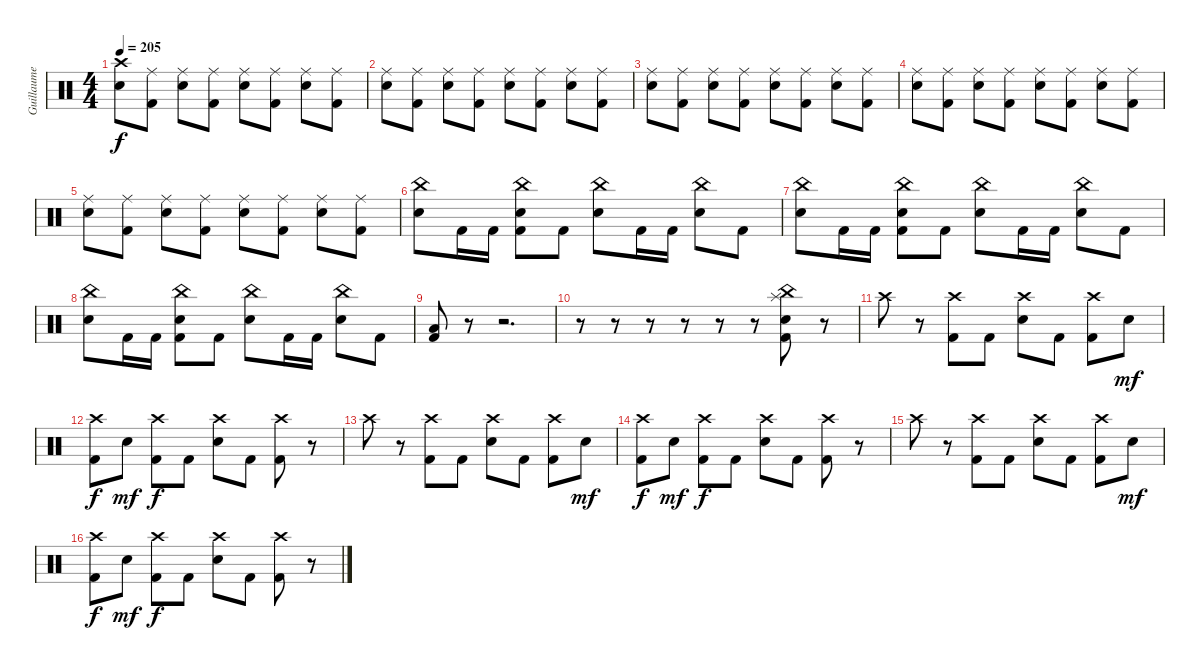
\track ("Guillaume" "Guillaume") {instrument percussion}
\staff {score}
\articulation defaults
\ts (4 4)
\tempo 205
\clef neutral
\ks c
("Crash high (hit)" "Snare (hit) 2").8{dy f} ("Ride (middle)" "Kick (hit) 2").8 ("Ride (middle)" "Snare (hit) 2").8 ("Ride (middle)" "Kick (hit) 2").8 ("Ride (middle)" "Snare (hit) 2").8 ("Ride (middle)" "Kick (hit) 2").8 ("Ride (middle)" "Snare (hit) 2").8 ("Ride (middle)" "Kick (hit) 2").8 |
("Ride (middle)" "Snare (hit) 2").8 ("Ride (middle)" "Kick (hit) 2").8 ("Ride (middle)" "Snare (hit) 2").8 ("Ride (middle)" "Kick (hit) 2").8 ("Ride (middle)" "Snare (hit) 2").8 ("Ride (middle)" "Kick (hit) 2").8 ("Ride (middle)" "Snare (hit) 2").8 ("Ride (middle)" "Kick (hit) 2").8 |
("Ride (middle)" "Snare (hit) 2").8 ("Ride (middle)" "Kick (hit) 2").8 ("Ride (middle)" "Snare (hit) 2").8 ("Ride (middle)" "Kick (hit) 2").8 ("Ride (middle)" "Snare (hit) 2").8 ("Ride (middle)" "Kick (hit) 2").8 ("Ride (middle)" "Snare (hit) 2").8 ("Ride (middle)" "Kick (hit) 2").8 |
("Ride (middle)" "Snare (hit) 2").8 ("Ride (middle)" "Kick (hit) 2").8 ("Ride (middle)" "Snare (hit) 2").8 ("Ride (middle)" "Kick (hit) 2").8 ("Ride (middle)" "Snare (hit) 2").8 ("Ride (middle)" "Kick (hit) 2").8 ("Ride (middle)" "Snare (hit) 2").8 ("Ride (middle)" "Kick (hit) 2").8 |
("Ride (middle)" "Snare (hit) 2").8 ("Ride (middle)" "Kick (hit) 2").8 ("Ride (middle)" "Snare (hit) 2").8 ("Ride (middle)" "Kick (hit) 2").8 ("Ride (middle)" "Snare (hit) 2").8 ("Ride (middle)" "Kick (hit) 2").8 ("Ride (middle)" "Snare (hit) 2").8 ("Ride (middle)" "Kick (hit) 2").8 |
("China (hit)" "Snare (hit) 2").8 "Kick (hit) 2".16 "Kick (hit) 2".16 ("China (hit)" "Snare (hit) 2" "Kick (hit) 2").8 "Kick (hit) 2".8 ("China (hit)" "Snare (hit) 2").8 "Kick (hit) 2".16 "Kick (hit) 2".16 ("China (hit)" "Snare (hit) 2").8 "Kick (hit) 2".8 |
("China (hit)" "Snare (hit) 2").8 "Kick (hit) 2".16 "Kick (hit) 2".16 ("China (hit)" "Snare (hit) 2" "Kick (hit) 2").8 "Kick (hit) 2".8 ("China (hit)" "Snare (hit) 2").8 "Kick (hit) 2".16 "Kick (hit) 2".16 ("China (hit)" "Snare (hit) 2").8 "Kick (hit) 2".8 |
("China (hit)" "Snare (hit) 2").8 "Kick (hit) 2".16 "Kick (hit) 2".16 ("China (hit)" "Snare (hit) 2" "Kick (hit) 2").8 "Kick (hit) 2".8 ("China (hit)" "Snare (hit) 2").8 "Kick (hit) 2".16 "Kick (hit) 2".16 ("China (hit)" "Snare (hit) 2").8 "Kick (hit) 2".8 |
("Low Tom (hit)" "Kick (hit) 2").8 r.8 r.2{d} |
r.8 r.8 r.8 r.8 r.8 r.8 ("Kick (hit) 2" "China (hit)" "Snare (hit) 2" "Splash (hit)").8 r.8 |
"Crash high (hit)".8 r.8 ("Crash high (hit)" "Kick (hit) 2").8 "Kick (hit) 2".8 ("Crash high (hit)" "Snare (hit) 2").8 "Kick (hit) 2".8 ("Crash high (hit)" "Kick (hit) 2").8 "Snare (hit) 2".8{dy mf} |
("Crash high (hit)" "Kick (hit) 2").8{dy f} "Snare (hit) 2".8{dy mf} ("Crash high (hit)" "Kick (hit) 2").8{dy f} "Kick (hit) 2".8 ("Crash high (hit)" "Snare (hit) 2").8 "Kick (hit) 2".8 ("Crash high (hit)" "Kick (hit) 2").8 r.8 |
"Crash high (hit)".8 r.8 ("Crash high (hit)" "Kick (hit) 2").8 "Kick (hit) 2".8 ("Crash high (hit)" "Snare (hit) 2").8 "Kick (hit) 2".8 ("Crash high (hit)" "Kick (hit) 2").8 "Snare (hit) 2".8{dy mf} |
("Crash high (hit)" "Kick (hit) 2").8{dy f} "Snare (hit) 2".8{dy mf} ("Crash high (hit)" "Kick (hit) 2").8{dy f} "Kick (hit) 2".8 ("Crash high (hit)" "Snare (hit) 2").8 "Kick (hit) 2".8 ("Crash high (hit)" "Kick (hit) 2").8 r.8 |
"Crash high (hit)".8 r.8 ("Crash high (hit)" "Kick (hit) 2").8 "Kick (hit) 2".8 ("Crash high (hit)" "Snare (hit) 2").8 "Kick (hit) 2".8 ("Crash high (hit)" "Kick (hit) 2").8 "Snare (hit) 2".8{dy mf} |
("Crash high (hit)" "Kick (hit) 2").8{dy f} "Snare (hit) 2".8{dy mf} ("Crash high (hit)" "Kick (hit) 2").8{dy f} "Kick (hit) 2".8 ("Crash high (hit)" "Snare (hit) 2").8 "Kick (hit) 2".8 ("Crash high (hit)" "Kick (hit) 2").8 r.8
